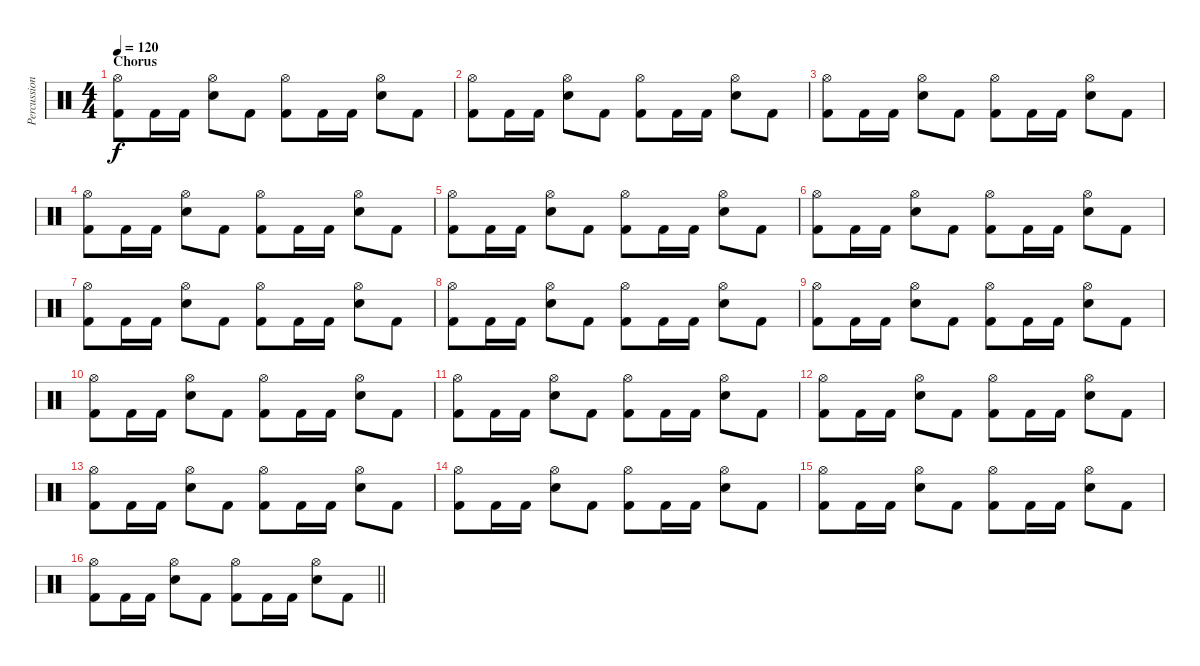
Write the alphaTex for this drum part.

\track ("Percussion" "Percussion") {instrument percussion}
\staff {score}
\articulation defaults
\ts (4 4)
\section ("" "Chorus")
\tempo 120
\clef neutral
\ks c
("Hi-Hat (open)" "Kick (hit) 2").8{dy f} "Kick (hit) 2".16 "Kick (hit) 2".16 ("Hi-Hat (open)" "Electric Snare (hit)").8 "Kick (hit) 2".8 ("Hi-Hat (open)" "Kick (hit) 2").8 "Kick (hit) 2".16 "Kick (hit) 2".16 ("Hi-Hat (open)" "Electric Snare (hit)").8 "Kick (hit) 2".8 |
("Hi-Hat (open)" "Kick (hit) 2").8 "Kick (hit) 2".16 "Kick (hit) 2".16 ("Hi-Hat (open)" "Electric Snare (hit)").8 "Kick (hit) 2".8 ("Hi-Hat (open)" "Kick (hit) 2").8 "Kick (hit) 2".16 "Kick (hit) 2".16 ("Hi-Hat (open)" "Electric Snare (hit)").8 "Kick (hit) 2".8 |
("Hi-Hat (open)" "Kick (hit) 2").8 "Kick (hit) 2".16 "Kick (hit) 2".16 ("Hi-Hat (open)" "Electric Snare (hit)").8 "Kick (hit) 2".8 ("Hi-Hat (open)" "Kick (hit) 2").8 "Kick (hit) 2".16 "Kick (hit) 2".16 ("Hi-Hat (open)" "Electric Snare (hit)").8 "Kick (hit) 2".8 |
("Hi-Hat (open)" "Kick (hit) 2").8 "Kick (hit) 2".16 "Kick (hit) 2".16 ("Hi-Hat (open)" "Electric Snare (hit)").8 "Kick (hit) 2".8 ("Hi-Hat (open)" "Kick (hit) 2").8 "Kick (hit) 2".16 "Kick (hit) 2".16 ("Hi-Hat (open)" "Electric Snare (hit)").8 "Kick (hit) 2".8 |
("Hi-Hat (open)" "Kick (hit) 2").8 "Kick (hit) 2".16 "Kick (hit) 2".16 ("Hi-Hat (open)" "Electric Snare (hit)").8 "Kick (hit) 2".8 ("Hi-Hat (open)" "Kick (hit) 2").8 "Kick (hit) 2".16 "Kick (hit) 2".16 ("Hi-Hat (open)" "Electric Snare (hit)").8 "Kick (hit) 2".8 |
("Hi-Hat (open)" "Kick (hit) 2").8 "Kick (hit) 2".16 "Kick (hit) 2".16 ("Hi-Hat (open)" "Electric Snare (hit)").8 "Kick (hit) 2".8 ("Hi-Hat (open)" "Kick (hit) 2").8 "Kick (hit) 2".16 "Kick (hit) 2".16 ("Hi-Hat (open)" "Electric Snare (hit)").8 "Kick (hit) 2".8 |
("Hi-Hat (open)" "Kick (hit) 2").8 "Kick (hit) 2".16 "Kick (hit) 2".16 ("Hi-Hat (open)" "Electric Snare (hit)").8 "Kick (hit) 2".8 ("Hi-Hat (open)" "Kick (hit) 2").8 "Kick (hit) 2".16 "Kick (hit) 2".16 ("Hi-Hat (open)" "Electric Snare (hit)").8 "Kick (hit) 2".8 |
("Hi-Hat (open)" "Kick (hit) 2").8 "Kick (hit) 2".16 "Kick (hit) 2".16 ("Hi-Hat (open)" "Electric Snare (hit)").8 "Kick (hit) 2".8 ("Hi-Hat (open)" "Kick (hit) 2").8 "Kick (hit) 2".16 "Kick (hit) 2".16 ("Hi-Hat (open)" "Electric Snare (hit)").8 "Kick (hit) 2".8 |
("Hi-Hat (open)" "Kick (hit) 2").8 "Kick (hit) 2".16 "Kick (hit) 2".16 ("Hi-Hat (open)" "Electric Snare (hit)").8 "Kick (hit) 2".8 ("Hi-Hat (open)" "Kick (hit) 2").8 "Kick (hit) 2".16 "Kick (hit) 2".16 ("Hi-Hat (open)" "Electric Snare (hit)").8 "Kick (hit) 2".8 |
("Hi-Hat (open)" "Kick (hit) 2").8 "Kick (hit) 2".16 "Kick (hit) 2".16 ("Hi-Hat (open)" "Electric Snare (hit)").8 "Kick (hit) 2".8 ("Hi-Hat (open)" "Kick (hit) 2").8 "Kick (hit) 2".16 "Kick (hit) 2".16 ("Hi-Hat (open)" "Electric Snare (hit)").8 "Kick (hit) 2".8 |
("Hi-Hat (open)" "Kick (hit) 2").8 "Kick (hit) 2".16 "Kick (hit) 2".16 ("Hi-Hat (open)" "Electric Snare (hit)").8 "Kick (hit) 2".8 ("Hi-Hat (open)" "Kick (hit) 2").8 "Kick (hit) 2".16 "Kick (hit) 2".16 ("Hi-Hat (open)" "Electric Snare (hit)").8 "Kick (hit) 2".8 |
("Hi-Hat (open)" "Kick (hit) 2").8 "Kick (hit) 2".16 "Kick (hit) 2".16 ("Hi-Hat (open)" "Electric Snare (hit)").8 "Kick (hit) 2".8 ("Hi-Hat (open)" "Kick (hit) 2").8 "Kick (hit) 2".16 "Kick (hit) 2".16 ("Hi-Hat (open)" "Electric Snare (hit)").8 "Kick (hit) 2".8 |
("Hi-Hat (open)" "Kick (hit) 2").8 "Kick (hit) 2".16 "Kick (hit) 2".16 ("Hi-Hat (open)" "Electric Snare (hit)").8 "Kick (hit) 2".8 ("Hi-Hat (open)" "Kick (hit) 2").8 "Kick (hit) 2".16 "Kick (hit) 2".16 ("Hi-Hat (open)" "Electric Snare (hit)").8 "Kick (hit) 2".8 |
("Hi-Hat (open)" "Kick (hit) 2").8 "Kick (hit) 2".16 "Kick (hit) 2".16 ("Hi-Hat (open)" "Electric Snare (hit)").8 "Kick (hit) 2".8 ("Hi-Hat (open)" "Kick (hit) 2").8 "Kick (hit) 2".16 "Kick (hit) 2".16 ("Hi-Hat (open)" "Electric Snare (hit)").8 "Kick (hit) 2".8 |
("Hi-Hat (open)" "Kick (hit) 2").8 "Kick (hit) 2".16 "Kick (hit) 2".16 ("Hi-Hat (open)" "Electric Snare (hit)").8 "Kick (hit) 2".8 ("Hi-Hat (open)" "Kick (hit) 2").8 "Kick (hit) 2".16 "Kick (hit) 2".16 ("Hi-Hat (open)" "Electric Snare (hit)").8 "Kick (hit) 2".8 |
\barLineRight lightlight
("Hi-Hat (open)" "Kick (hit) 2").8 "Kick (hit) 2".16 "Kick (hit) 2".16 ("Hi-Hat (open)" "Electric Snare (hit)").8 "Kick (hit) 2".8 ("Hi-Hat (open)" "Kick (hit) 2").8 "Kick (hit) 2".16 "Kick (hit) 2".16 ("Hi-Hat (open)" "Electric Snare (hit)").8 "Kick (hit) 2".8
